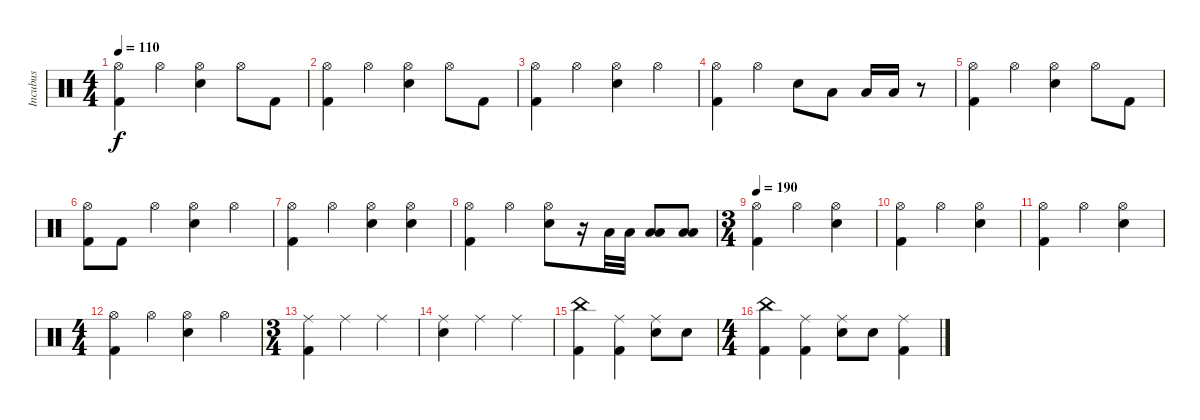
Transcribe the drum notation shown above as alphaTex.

\track ("Incubus" "Incubus") {instrument percussion}
\staff {score}
\articulation defaults
\ts (4 4)
\tempo 110
\clef neutral
\ks c
("Hi-Hat (open)" "Kick (hit) 2").4{dy f} "Hi-Hat (open)".4 ("Hi-Hat (open)" "Electric Snare (hit)").4 "Hi-Hat (open)".8 "Kick (hit) 2".8 |
("Hi-Hat (open)" "Kick (hit) 2").4 "Hi-Hat (open)".4 ("Hi-Hat (open)" "Electric Snare (hit)").4 "Hi-Hat (open)".8 "Kick (hit) 2".8 |
("Hi-Hat (open)" "Kick (hit) 2").4 "Hi-Hat (open)".4 ("Hi-Hat (open)" "Electric Snare (hit)").4 "Hi-Hat (open)".4 |
("Hi-Hat (open)" "Kick (hit) 2").4 "Hi-Hat (open)".4 "Electric Snare (hit)".8 "Low Tom (hit)".8 "Low Tom (hit)".16 "Low Tom (hit)".16 r.8 |
("Hi-Hat (open)" "Kick (hit) 2").4 "Hi-Hat (open)".4 ("Hi-Hat (open)" "Electric Snare (hit)").4 "Hi-Hat (open)".8 "Kick (hit) 2".8 |
("Hi-Hat (open)" "Kick (hit) 2").8 "Kick (hit) 2".8 "Hi-Hat (open)".4 ("Hi-Hat (open)" "Electric Snare (hit)").4 "Hi-Hat (open)".4 |
("Hi-Hat (open)" "Kick (hit) 2").4 "Hi-Hat (open)".4 ("Hi-Hat (open)" "Electric Snare (hit)").4 ("Hi-Hat (open)" "Electric Snare (hit)").4 |
("Hi-Hat (open)" "Kick (hit) 2").4 "Hi-Hat (open)".4 ("Hi-Hat (open)" "Electric Snare (hit)").8 r.16 "Low Tom (hit)".32 "Low Tom (hit)".32 ("Low Tom (hit)" "Low Tom (hit)").8 ("Low Tom (hit)" "Low Tom (hit)").8 |
\ts (3 4)
\tempo 190
("Hi-Hat (open)" "Kick (hit) 2").4 "Hi-Hat (open)".4 ("Hi-Hat (open)" "Electric Snare (hit)").4 |
("Hi-Hat (open)" "Kick (hit) 2").4 "Hi-Hat (open)".4 ("Hi-Hat (open)" "Electric Snare (hit)").4 |
("Hi-Hat (open)" "Kick (hit) 2").4 "Hi-Hat (open)".4 ("Hi-Hat (open)" "Electric Snare (hit)").4 |
\ts (4 4)
("Hi-Hat (open)" "Kick (hit) 2").4 "Hi-Hat (open)".4 ("Hi-Hat (open)" "Electric Snare (hit)").4 "Hi-Hat (open)".4 |
\ts (3 4)
("Ride (middle)" "Kick (hit) 2").4 "Ride (middle)".4 "Ride (middle)".4 |
("Ride (middle)" "Electric Snare (hit)").4 "Ride (middle)".4 "Ride (middle)".4 |
("China (hit)" "Kick (hit) 2").4 ("Ride (middle)" "Kick (hit) 2").4 ("Ride (middle)" "Electric Snare (hit)").8 "Electric Snare (hit)".8 |
\ts (4 4)
("China (hit)" "Kick (hit) 2").4 ("Ride (middle)" "Kick (hit) 2").4 ("Ride (middle)" "Electric Snare (hit)").8 "Electric Snare (hit)".8 ("Ride (middle)" "Kick (hit) 2").4
